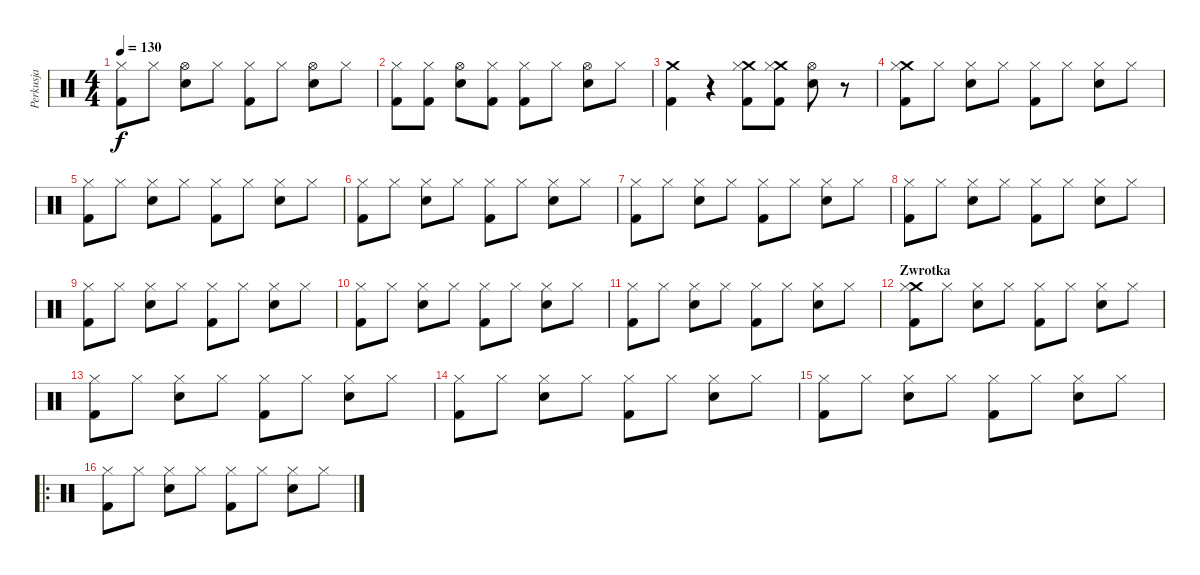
\track ("Perkusja" "Perkusja") {instrument percussion}
\staff {score}
\articulation defaults
\ts (4 4)
\tempo 130
\clef neutral
\ks c
("Hi-Hat (closed)" "Kick (hit) 2").8{dy f} "Hi-Hat (closed)".8 ("Hi-Hat (open)" "Electric Snare (hit)").8 "Hi-Hat (closed)".8 ("Hi-Hat (closed)" "Kick (hit) 2").8 "Hi-Hat (closed)".8 ("Hi-Hat (open)" "Electric Snare (hit)").8 "Hi-Hat (closed)".8 |
("Hi-Hat (closed)" "Kick (hit) 2").8 ("Hi-Hat (closed)" "Kick (hit) 2").8 ("Hi-Hat (open)" "Electric Snare (hit)").8 ("Hi-Hat (closed)" "Kick (hit) 2").8 ("Hi-Hat (closed)" "Kick (hit) 2").8 "Hi-Hat (closed)".8 ("Hi-Hat (open)" "Electric Snare (hit)").8 "Hi-Hat (closed)".8 |
("Crash medium (hit)" "Kick (hit) 2").4 r.4 ("Crash medium (hit)" "Hi-Hat (closed)" "Kick (hit) 2").8 ("Crash medium (hit)" "Hi-Hat (closed)" "Kick (hit) 2").8 ("Hi-Hat (open)" "Electric Snare (hit)").8 r.8 |
("Crash medium (hit)" "Hi-Hat (closed)" "Kick (hit) 2").8 "Hi-Hat (closed)".8 ("Hi-Hat (closed)" "Electric Snare (hit)").8 "Hi-Hat (closed)".8 ("Hi-Hat (closed)" "Kick (hit) 2").8 "Hi-Hat (closed)".8 ("Hi-Hat (closed)" "Electric Snare (hit)").8 "Hi-Hat (closed)".8 |
("Hi-Hat (closed)" "Kick (hit) 2").8 "Hi-Hat (closed)".8 ("Hi-Hat (closed)" "Electric Snare (hit)").8 "Hi-Hat (closed)".8 ("Hi-Hat (closed)" "Kick (hit) 2").8 "Hi-Hat (closed)".8 ("Hi-Hat (closed)" "Electric Snare (hit)").8 "Hi-Hat (closed)".8 |
("Hi-Hat (closed)" "Kick (hit) 2").8 "Hi-Hat (closed)".8 ("Hi-Hat (closed)" "Electric Snare (hit)").8 "Hi-Hat (closed)".8 ("Hi-Hat (closed)" "Kick (hit) 2").8 "Hi-Hat (closed)".8 ("Hi-Hat (closed)" "Electric Snare (hit)").8 "Hi-Hat (closed)".8 |
("Hi-Hat (closed)" "Kick (hit) 2").8 "Hi-Hat (closed)".8 ("Hi-Hat (closed)" "Electric Snare (hit)").8 "Hi-Hat (closed)".8 ("Hi-Hat (closed)" "Kick (hit) 2").8 "Hi-Hat (closed)".8 ("Hi-Hat (closed)" "Electric Snare (hit)").8 "Hi-Hat (closed)".8 |
("Hi-Hat (closed)" "Kick (hit) 2").8 "Hi-Hat (closed)".8 ("Hi-Hat (closed)" "Electric Snare (hit)").8 "Hi-Hat (closed)".8 ("Hi-Hat (closed)" "Kick (hit) 2").8 "Hi-Hat (closed)".8 ("Hi-Hat (closed)" "Electric Snare (hit)").8 "Hi-Hat (closed)".8 |
("Hi-Hat (closed)" "Kick (hit) 2").8 "Hi-Hat (closed)".8 ("Hi-Hat (closed)" "Electric Snare (hit)").8 "Hi-Hat (closed)".8 ("Hi-Hat (closed)" "Kick (hit) 2").8 "Hi-Hat (closed)".8 ("Hi-Hat (closed)" "Electric Snare (hit)").8 "Hi-Hat (closed)".8 |
("Hi-Hat (closed)" "Kick (hit) 2").8 "Hi-Hat (closed)".8 ("Hi-Hat (closed)" "Electric Snare (hit)").8 "Hi-Hat (closed)".8 ("Hi-Hat (closed)" "Kick (hit) 2").8 "Hi-Hat (closed)".8 ("Hi-Hat (closed)" "Electric Snare (hit)").8 "Hi-Hat (closed)".8 |
("Hi-Hat (closed)" "Kick (hit) 2").8 "Hi-Hat (closed)".8 ("Hi-Hat (closed)" "Electric Snare (hit)").8 "Hi-Hat (closed)".8 ("Hi-Hat (closed)" "Kick (hit) 2").8 "Hi-Hat (closed)".8 ("Hi-Hat (closed)" "Electric Snare (hit)").8 "Hi-Hat (closed)".8 |
\section ("" "Zwrotka")
("Crash medium (hit)" "Hi-Hat (closed)" "Kick (hit) 2").8 "Hi-Hat (closed)".8 ("Hi-Hat (closed)" "Electric Snare (hit)").8 "Hi-Hat (closed)".8 ("Hi-Hat (closed)" "Kick (hit) 2").8 "Hi-Hat (closed)".8 ("Hi-Hat (closed)" "Electric Snare (hit)").8 "Hi-Hat (closed)".8 |
("Hi-Hat (closed)" "Kick (hit) 2").8 "Hi-Hat (closed)".8 ("Hi-Hat (closed)" "Electric Snare (hit)").8 "Hi-Hat (closed)".8 ("Hi-Hat (closed)" "Kick (hit) 2").8 "Hi-Hat (closed)".8 ("Hi-Hat (closed)" "Electric Snare (hit)").8 "Hi-Hat (closed)".8 |
("Hi-Hat (closed)" "Kick (hit) 2").8 "Hi-Hat (closed)".8 ("Hi-Hat (closed)" "Electric Snare (hit)").8 "Hi-Hat (closed)".8 ("Hi-Hat (closed)" "Kick (hit) 2").8 "Hi-Hat (closed)".8 ("Hi-Hat (closed)" "Electric Snare (hit)").8 "Hi-Hat (closed)".8 |
("Hi-Hat (closed)" "Kick (hit) 2").8 "Hi-Hat (closed)".8 ("Hi-Hat (closed)" "Electric Snare (hit)").8 "Hi-Hat (closed)".8 ("Hi-Hat (closed)" "Kick (hit) 2").8 "Hi-Hat (closed)".8 ("Hi-Hat (closed)" "Electric Snare (hit)").8 "Hi-Hat (closed)".8 |
\ro
("Hi-Hat (closed)" "Kick (hit) 2").8 "Hi-Hat (closed)".8 ("Hi-Hat (closed)" "Electric Snare (hit)").8 "Hi-Hat (closed)".8 ("Hi-Hat (closed)" "Kick (hit) 2").8 "Hi-Hat (closed)".8 ("Hi-Hat (closed)" "Electric Snare (hit)").8 "Hi-Hat (closed)".8
